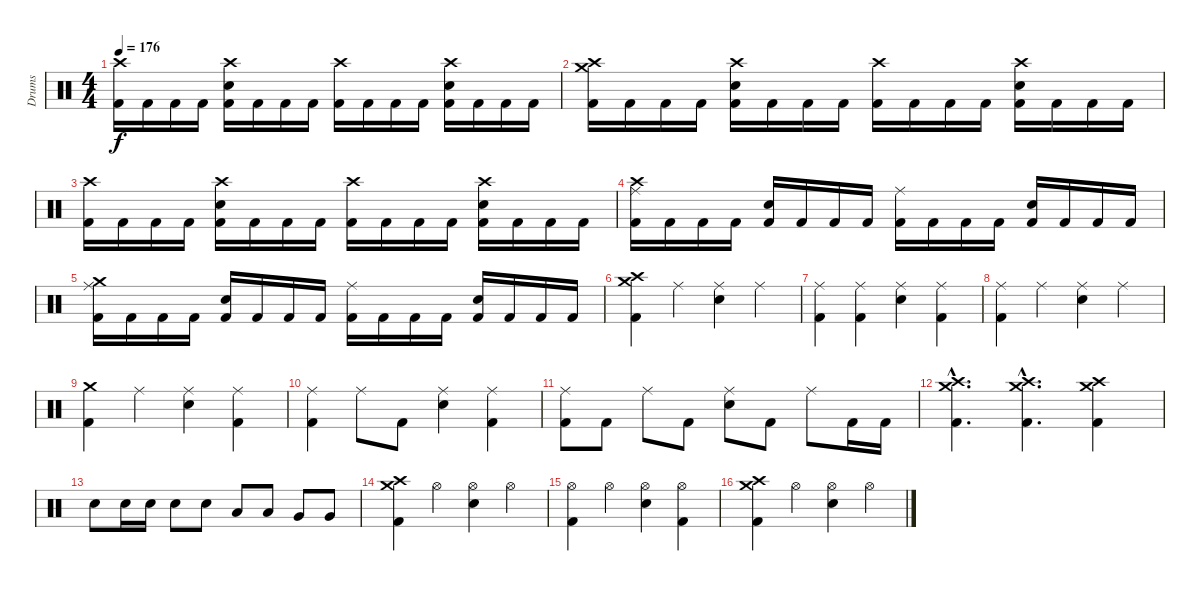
\track ("Drums" "Drums") {instrument percussion}
\staff {score}
\articulation defaults
\ts (4 4)
\tempo 176
\clef neutral
\ks c
("Crash high (hit)" "Kick (hit) 2").16{dy f} "Kick (hit) 2".16 "Kick (hit) 2".16 "Kick (hit) 2".16 ("Crash high (hit)" "Snare (hit) 2" "Kick (hit) 2").16 "Kick (hit) 2".16 "Kick (hit) 2".16 "Kick (hit) 2".16 ("Crash high (hit)" "Kick (hit) 2").16 "Kick (hit) 2".16 "Kick (hit) 2".16 "Kick (hit) 2".16 ("Crash high (hit)" "Snare (hit) 2" "Kick (hit) 2").16 "Kick (hit) 2".16 "Kick (hit) 2".16 "Kick (hit) 2".16 |
("Crash medium (hit)" "Crash high (hit)" "Kick (hit) 2").16 "Kick (hit) 2".16 "Kick (hit) 2".16 "Kick (hit) 2".16 ("Crash high (hit)" "Snare (hit) 2" "Kick (hit) 2").16 "Kick (hit) 2".16 "Kick (hit) 2".16 "Kick (hit) 2".16 ("Crash high (hit)" "Kick (hit) 2").16 "Kick (hit) 2".16 "Kick (hit) 2".16 "Kick (hit) 2".16 ("Crash high (hit)" "Snare (hit) 2" "Kick (hit) 2").16 "Kick (hit) 2".16 "Kick (hit) 2".16 "Kick (hit) 2".16 |
("Crash high (hit)" "Kick (hit) 2").16 "Kick (hit) 2".16 "Kick (hit) 2".16 "Kick (hit) 2".16 ("Crash high (hit)" "Snare (hit) 2" "Kick (hit) 2").16 "Kick (hit) 2".16 "Kick (hit) 2".16 "Kick (hit) 2".16 ("Crash high (hit)" "Kick (hit) 2").16 "Kick (hit) 2".16 "Kick (hit) 2".16 "Kick (hit) 2".16 ("Crash high (hit)" "Snare (hit) 2" "Kick (hit) 2").16 "Kick (hit) 2".16 "Kick (hit) 2".16 "Kick (hit) 2".16 |
("Ride (middle)" "Crash high (hit)" "Kick (hit) 2").16 "Kick (hit) 2".16 "Kick (hit) 2".16 "Kick (hit) 2".16 ("Snare (hit) 2" "Kick (hit) 2").16 "Kick (hit) 2".16 "Kick (hit) 2".16 "Kick (hit) 2".16 ("Ride (middle)" "Kick (hit) 2").16 "Kick (hit) 2".16 "Kick (hit) 2".16 "Kick (hit) 2".16 ("Snare (hit) 2" "Kick (hit) 2").16 "Kick (hit) 2".16 "Kick (hit) 2".16 "Kick (hit) 2".16 |
("Ride (middle)" "Crash medium (hit)" "Kick (hit) 2").16 "Kick (hit) 2".16 "Kick (hit) 2".16 "Kick (hit) 2".16 ("Snare (hit) 2" "Kick (hit) 2").16 "Kick (hit) 2".16 "Kick (hit) 2".16 "Kick (hit) 2".16 ("Ride (middle)" "Kick (hit) 2").16 "Kick (hit) 2".16 "Kick (hit) 2".16 "Kick (hit) 2".16 ("Snare (hit) 2" "Kick (hit) 2").16 "Kick (hit) 2".16 "Kick (hit) 2".16 "Kick (hit) 2".16 |
("Crash medium (hit)" "Crash high (hit)" "Kick (hit) 2").4 "Ride (middle)".4 ("Ride (middle)" "Snare (hit) 2").4 "Ride (middle)".4 |
("Ride (middle)" "Kick (hit) 2").4 ("Ride (middle)" "Kick (hit) 2").4 ("Ride (middle)" "Snare (hit) 2").4 ("Ride (middle)" "Kick (hit) 2").4 |
("Ride (middle)" "Kick (hit) 2").4 "Ride (middle)".4 ("Ride (middle)" "Snare (hit) 2").4 "Ride (middle)".4 |
("Crash medium (hit)" "Kick (hit) 2").4 "Ride (middle)".4 ("Ride (middle)" "Snare (hit) 2").4 ("Ride (middle)" "Kick (hit) 2").4 |
("Ride (middle)" "Kick (hit) 2").4 "Ride (middle)".8 "Kick (hit) 2".8 ("Ride (middle)" "Snare (hit) 2").4 ("Ride (middle)" "Kick (hit) 2").4 |
("Ride (middle)" "Kick (hit) 2").8 "Kick (hit) 2".8 "Ride (middle)".8 "Kick (hit) 2".8 ("Ride (middle)" "Snare (hit) 2").8 "Kick (hit) 2".8 "Ride (middle)".8 "Kick (hit) 2".16 "Kick (hit) 2".16 |
("Crash medium (hit)"{hac} "Crash high (hit)"{hac} "Kick (hit) 2"{hac}).4{d} ("Crash medium (hit)"{hac} "Crash high (hit)"{hac} "Kick (hit) 2"{hac}).4{d} ("Crash medium (hit)" "Crash high (hit)" "Kick (hit) 2").4 |
"Snare (hit) 2".8 "Snare (hit) 2".16 "Snare (hit) 2".16 "Snare (hit) 2".8 "Snare (hit) 2".8 "Low Tom (hit)".8 "Low Tom (hit)".8 "Very Low Tom (hit)".8 "Very Low Tom (hit)".8 |
("Crash high (hit)" "Crash medium (hit)" "Kick (hit) 2").4 "Hi-Hat (open)".4 ("Hi-Hat (open)" "Snare (hit) 2").4 "Hi-Hat (open)".4 |
("Hi-Hat (open)" "Kick (hit) 2").4 "Hi-Hat (open)".4 ("Hi-Hat (open)" "Snare (hit) 2").4 ("Hi-Hat (open)" "Kick (hit) 2").4 |
("Crash high (hit)" "Crash medium (hit)" "Kick (hit) 2").4 "Hi-Hat (open)".4 ("Hi-Hat (open)" "Snare (hit) 2").4 "Hi-Hat (open)".4
